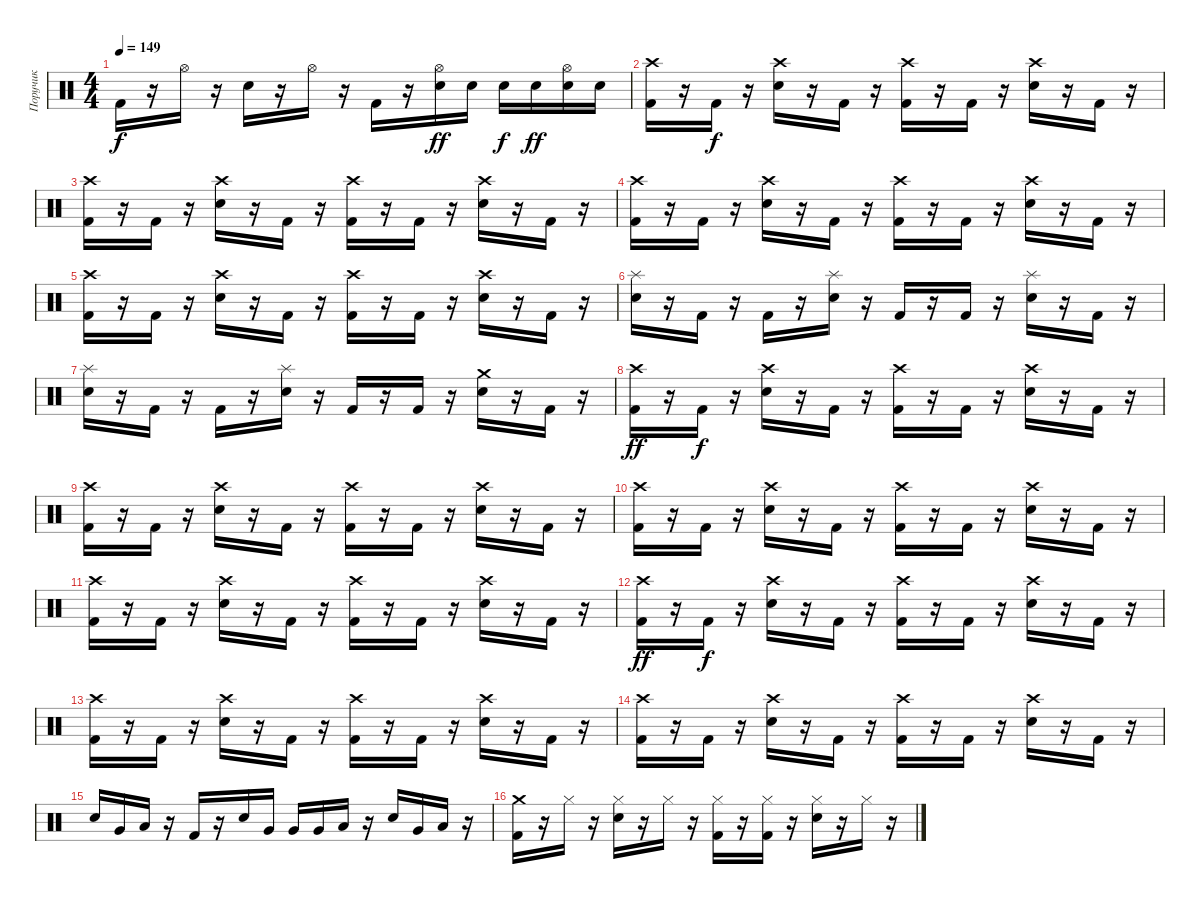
\track ("Поручик" "Поручик") {instrument percussion}
\staff {score}
\articulation defaults
\ts (4 4)
\tempo 149
\clef neutral
\ks c "Kick (hit) 2".16{dy f}
r.16 "Hi-Hat (open)".16 r.16 "Snare (hit) 2".16 r.16 "Hi-Hat (open)".16 r.16 "Kick (hit) 2".16 r.16 ("Hi-Hat (open)" "Snare (hit) 2").16{dy ff} "Snare (hit) 2".16 "Snare (hit) 2".16{dy f} "Snare (hit) 2".16{dy ff} ("Hi-Hat (open)" "Snare (hit) 2").16 "Snare (hit) 2".16 |
("Crash high (hit)" "Kick (hit) 2").16 r.16 "Kick (hit) 2".16{dy f} r.16 ("Crash high (hit)" "Snare (hit) 2").16 r.16 "Kick (hit) 2".16 r.16 ("Crash high (hit)" "Kick (hit) 2").16 r.16 "Kick (hit) 2".16 r.16 ("Crash high (hit)" "Snare (hit) 2").16 r.16 "Kick (hit) 2".16 r.16 |
("Crash high (hit)" "Kick (hit) 2").16 r.16 "Kick (hit) 2".16 r.16 ("Crash high (hit)" "Snare (hit) 2").16 r.16 "Kick (hit) 2".16 r.16 ("Crash high (hit)" "Kick (hit) 2").16 r.16 "Kick (hit) 2".16 r.16 ("Crash high (hit)" "Snare (hit) 2").16 r.16 "Kick (hit) 2".16 r.16 |
("Crash high (hit)" "Kick (hit) 2").16 r.16 "Kick (hit) 2".16 r.16 ("Crash high (hit)" "Snare (hit) 2").16 r.16 "Kick (hit) 2".16 r.16 ("Crash high (hit)" "Kick (hit) 2").16 r.16 "Kick (hit) 2".16 r.16 ("Crash high (hit)" "Snare (hit) 2").16 r.16 "Kick (hit) 2".16 r.16 |
("Crash high (hit)" "Kick (hit) 2").16 r.16 "Kick (hit) 2".16 r.16 ("Crash high (hit)" "Snare (hit) 2").16 r.16 "Kick (hit) 2".16 r.16 ("Crash high (hit)" "Kick (hit) 2").16 r.16 "Kick (hit) 2".16 r.16 ("Crash high (hit)" "Snare (hit) 2").16 r.16 "Kick (hit) 2".16 r.16 |
("Splash (hit)" "Snare (hit) 2").16 r.16 "Kick (hit) 2".16 r.16 "Kick (hit) 2".16 r.16 ("Splash (hit)" "Snare (hit) 2").16 r.16 "Kick (hit) 2".16 r.16 "Kick (hit) 2".16 r.16 ("Splash (hit)" "Snare (hit) 2").16 r.16 "Kick (hit) 2".16 r.16 |
("Splash (hit)" "Snare (hit) 2").16 r.16 "Kick (hit) 2".16 r.16 "Kick (hit) 2".16 r.16 ("Splash (hit)" "Snare (hit) 2").16 r.16 "Kick (hit) 2".16 r.16 "Kick (hit) 2".16 r.16 ("Crash medium (hit)" "Snare (hit) 2").16 r.16 "Kick (hit) 2".16 r.16 |
("Crash high (hit)" "Kick (hit) 2").16{dy ff} r.16 "Kick (hit) 2".16{dy f} r.16 ("Crash high (hit)" "Snare (hit) 2").16 r.16 "Kick (hit) 2".16 r.16 ("Crash high (hit)" "Kick (hit) 2").16 r.16 "Kick (hit) 2".16 r.16 ("Crash high (hit)" "Snare (hit) 2").16 r.16 "Kick (hit) 2".16 r.16 |
("Crash high (hit)" "Kick (hit) 2").16 r.16 "Kick (hit) 2".16 r.16 ("Crash high (hit)" "Snare (hit) 2").16 r.16 "Kick (hit) 2".16 r.16 ("Crash high (hit)" "Kick (hit) 2").16 r.16 "Kick (hit) 2".16 r.16 ("Crash high (hit)" "Snare (hit) 2").16 r.16 "Kick (hit) 2".16 r.16 |
("Crash high (hit)" "Kick (hit) 2").16 r.16 "Kick (hit) 2".16 r.16 ("Crash high (hit)" "Snare (hit) 2").16 r.16 "Kick (hit) 2".16 r.16 ("Crash high (hit)" "Kick (hit) 2").16 r.16 "Kick (hit) 2".16 r.16 ("Crash high (hit)" "Snare (hit) 2").16 r.16 "Kick (hit) 2".16 r.16 |
("Crash high (hit)" "Kick (hit) 2").16 r.16 "Kick (hit) 2".16 r.16 ("Crash high (hit)" "Snare (hit) 2").16 r.16 "Kick (hit) 2".16 r.16 ("Crash high (hit)" "Kick (hit) 2").16 r.16 "Kick (hit) 2".16 r.16 ("Crash high (hit)" "Snare (hit) 2").16 r.16 "Kick (hit) 2".16 r.16 |
("Crash high (hit)" "Kick (hit) 2").16{dy ff} r.16 "Kick (hit) 2".16{dy f} r.16 ("Crash high (hit)" "Snare (hit) 2").16 r.16 "Kick (hit) 2".16 r.16 ("Crash high (hit)" "Kick (hit) 2").16 r.16 "Kick (hit) 2".16 r.16 ("Crash high (hit)" "Snare (hit) 2").16 r.16 "Kick (hit) 2".16 r.16 |
("Crash high (hit)" "Kick (hit) 2").16 r.16 "Kick (hit) 2".16 r.16 ("Crash high (hit)" "Snare (hit) 2").16 r.16 "Kick (hit) 2".16 r.16 ("Crash high (hit)" "Kick (hit) 2").16 r.16 "Kick (hit) 2".16 r.16 ("Crash high (hit)" "Snare (hit) 2").16 r.16 "Kick (hit) 2".16 r.16 |
("Crash high (hit)" "Kick (hit) 2").16 r.16 "Kick (hit) 2".16 r.16 ("Crash high (hit)" "Snare (hit) 2").16 r.16 "Kick (hit) 2".16 r.16 ("Crash high (hit)" "Kick (hit) 2").16 r.16 "Kick (hit) 2".16 r.16 ("Crash high (hit)" "Snare (hit) 2").16 r.16 "Kick (hit) 2".16 r.16 |
"Snare (hit) 2".16 "Very Low Tom (hit)".16 "Low Floor Tom (hit)".16 r.16 "Kick (hit) 2".16 r.16 "Snare (hit) 2".16 "Very Low Tom (hit)".16 "Very Low Tom (hit)".16 "Very Low Tom (hit)".16 "Low Floor Tom (hit)".16 r.16 "Snare (hit) 2".16 "Very Low Tom (hit)".16 "Low Floor Tom (hit)".16 r.16 |
("Crash medium (hit)" "Kick (hit) 2").16 r.16 "Hi-Hat (closed)".16 r.16 ("Hi-Hat (closed)" "Snare (hit) 2").16 r.16 "Hi-Hat (closed)".16 r.16 ("Hi-Hat (closed)" "Kick (hit) 2").16 r.16 ("Hi-Hat (closed)" "Kick (hit) 2").16 r.16 ("Hi-Hat (closed)" "Snare (hit) 2").16 r.16 "Hi-Hat (closed)".16 r.16
